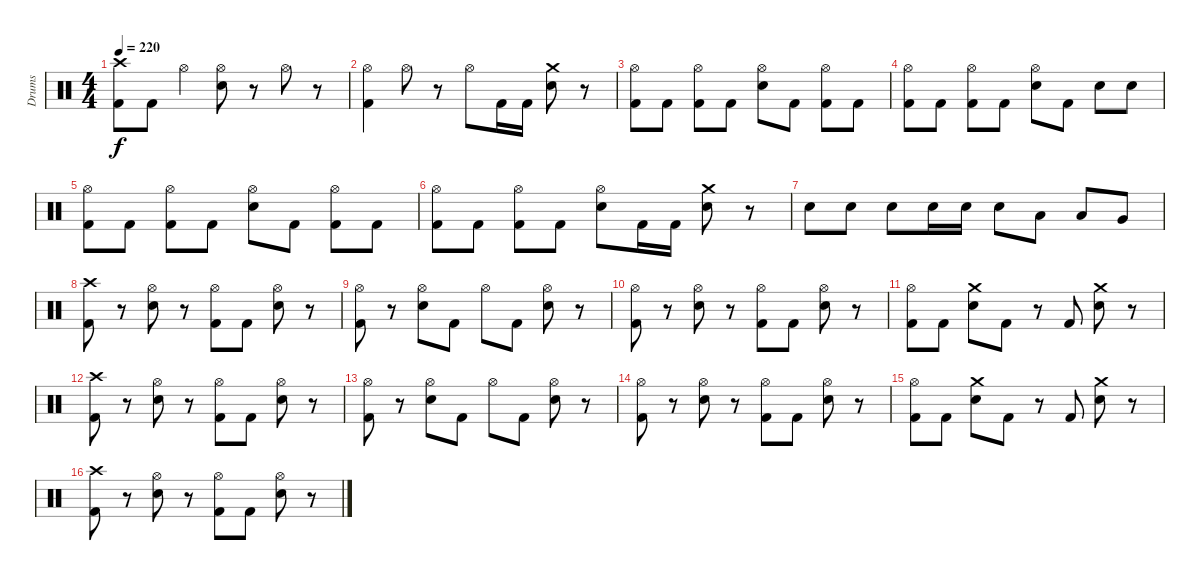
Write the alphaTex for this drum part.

\track ("Drums" "Drums") {instrument percussion}
\staff {score}
\articulation defaults
\ts (4 4)
\tempo 220
\clef neutral
\ks c
("Crash high (hit)" "Kick (hit) 2").8{dy f} "Kick (hit) 2".8 "Hi-Hat (open)".4 ("Hi-Hat (open)" "Snare (hit) 2").8 r.8 "Hi-Hat (open)".8 r.8 |
("Hi-Hat (open)" "Kick (hit) 2").4 "Hi-Hat (open)".8 r.8 "Hi-Hat (open)".8 "Kick (hit) 2".16 "Kick (hit) 2".16 ("Crash medium (hit)" "Snare (hit) 2").8 r.8 |
("Hi-Hat (open)" "Kick (hit) 2").8 "Kick (hit) 2".8 ("Hi-Hat (open)" "Kick (hit) 2").8 "Kick (hit) 2".8 ("Hi-Hat (open)" "Snare (hit) 2").8 "Kick (hit) 2".8 ("Hi-Hat (open)" "Kick (hit) 2").8 "Kick (hit) 2".8 |
("Hi-Hat (open)" "Kick (hit) 2").8 "Kick (hit) 2".8 ("Hi-Hat (open)" "Kick (hit) 2").8 "Kick (hit) 2".8 ("Hi-Hat (open)" "Snare (hit) 2").8 "Kick (hit) 2".8 "Snare (hit) 2".8 "Snare (hit) 2".8 |
("Hi-Hat (open)" "Kick (hit) 2").8 "Kick (hit) 2".8 ("Hi-Hat (open)" "Kick (hit) 2").8 "Kick (hit) 2".8 ("Hi-Hat (open)" "Snare (hit) 2").8 "Kick (hit) 2".8 ("Hi-Hat (open)" "Kick (hit) 2").8 "Kick (hit) 2".8 |
("Hi-Hat (open)" "Kick (hit) 2").8 "Kick (hit) 2".8 ("Hi-Hat (open)" "Kick (hit) 2").8 "Kick (hit) 2".8 ("Hi-Hat (open)" "Snare (hit) 2").8 "Kick (hit) 2".16 "Kick (hit) 2".16 ("Crash medium (hit)" "Snare (hit) 2").8 r.8 |
"Snare (hit) 2".8 "Snare (hit) 2".8 "Snare (hit) 2".8 "Snare (hit) 2".16 "Snare (hit) 2".16 "Snare (hit) 2".8 "Low Tom (hit)".8 "Low Tom (hit)".8 "Very Low Tom (hit)".8 |
("Crash high (hit)" "Kick (hit) 2").8 r.8 ("Hi-Hat (open)" "Snare (hit) 2").8 r.8 ("Hi-Hat (open)" "Kick (hit) 2").8 "Kick (hit) 2".8 ("Hi-Hat (open)" "Snare (hit) 2").8 r.8 |
("Hi-Hat (open)" "Kick (hit) 2").8 r.8 ("Hi-Hat (open)" "Snare (hit) 2").8 "Kick (hit) 2".8 "Hi-Hat (open)".8 "Kick (hit) 2".8 ("Hi-Hat (open)" "Snare (hit) 2").8 r.8 |
("Hi-Hat (open)" "Kick (hit) 2").8 r.8 ("Hi-Hat (open)" "Snare (hit) 2").8 r.8 ("Hi-Hat (open)" "Kick (hit) 2").8 "Kick (hit) 2".8 ("Hi-Hat (open)" "Snare (hit) 2").8 r.8 |
("Hi-Hat (open)" "Kick (hit) 2").8 "Kick (hit) 2".8 ("Crash medium (hit)" "Snare (hit) 2").8 "Kick (hit) 2".8 r.8 "Kick (hit) 2".8 ("Crash medium (hit)" "Snare (hit) 2").8 r.8 |
("Crash high (hit)" "Kick (hit) 2").8 r.8 ("Hi-Hat (open)" "Snare (hit) 2").8 r.8 ("Hi-Hat (open)" "Kick (hit) 2").8 "Kick (hit) 2".8 ("Hi-Hat (open)" "Snare (hit) 2").8 r.8 |
("Hi-Hat (open)" "Kick (hit) 2").8 r.8 ("Hi-Hat (open)" "Snare (hit) 2").8 "Kick (hit) 2".8 "Hi-Hat (open)".8 "Kick (hit) 2".8 ("Hi-Hat (open)" "Snare (hit) 2").8 r.8 |
("Hi-Hat (open)" "Kick (hit) 2").8 r.8 ("Hi-Hat (open)" "Snare (hit) 2").8 r.8 ("Hi-Hat (open)" "Kick (hit) 2").8 "Kick (hit) 2".8 ("Hi-Hat (open)" "Snare (hit) 2").8 r.8 |
("Hi-Hat (open)" "Kick (hit) 2").8 "Kick (hit) 2".8 ("Crash medium (hit)" "Snare (hit) 2").8 "Kick (hit) 2".8 r.8 "Kick (hit) 2".8 ("Crash medium (hit)" "Snare (hit) 2").8 r.8 |
("Crash high (hit)" "Kick (hit) 2").8 r.8 ("Hi-Hat (open)" "Snare (hit) 2").8 r.8 ("Hi-Hat (open)" "Kick (hit) 2").8 "Kick (hit) 2".8 ("Hi-Hat (open)" "Snare (hit) 2").8 r.8
